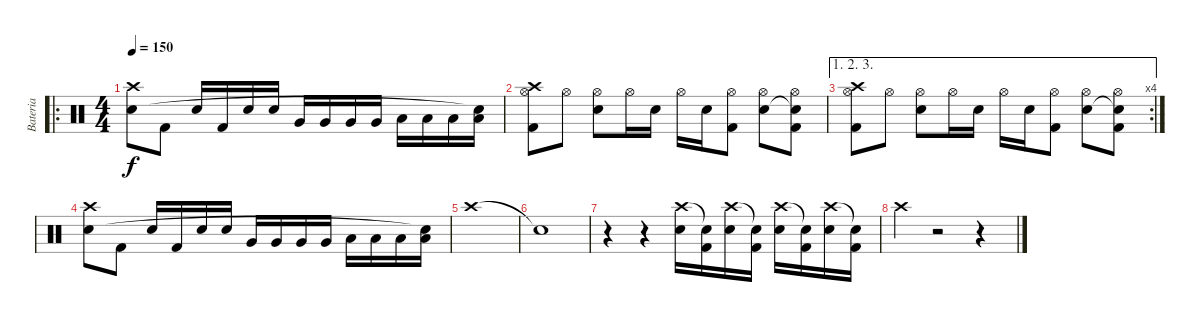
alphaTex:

\track ("Bateria" "Bateria") {instrument percussion}
\staff {score}
\articulation defaults
\ro
\ts (4 4)
\tempo 150
\clef neutral
\ks c
("Crash high (hit)" "Snare (hit) 2").8{dy f} "Kick (hit) 2".8 "Snare (hit) 2".16 "Kick (hit) 2".16 "Snare (hit) 2".16 "Snare (hit) 2".16 "Very Low Tom (hit)".16 "Very Low Tom (hit)".16 "Very Low Tom (hit)".16 "Very Low Tom (hit)".16 "Low Floor Tom (hit)".16 "Low Floor Tom (hit)".16 "Low Floor Tom (hit)".16 ("Low Floor Tom (hit)" "Snare (hit)"{t}).16 |
("Hi-Hat (open)" "Crash high (hit)" "Kick (hit) 2").8 "Hi-Hat (open)".8 ("Hi-Hat (open)" "Snare (hit) 2").8 "Hi-Hat (open)".16 "Snare (hit) 2".16 "Hi-Hat (open)".16 "Snare (hit) 2".16 ("Hi-Hat (open)" "Kick (hit) 2").8 ("Hi-Hat (open)" "Snare (hit) 2").8 ("Hi-Hat (open)" "Snare (hit)"{t} "Kick (hit) 2").8 |
\ae (1 2 3)
\rc 4
("Hi-Hat (open)" "Crash high (hit)" "Kick (hit) 2").8 "Hi-Hat (open)".8 ("Hi-Hat (open)" "Snare (hit) 2").8 "Hi-Hat (open)".16 "Snare (hit) 2".16 "Hi-Hat (open)".16 "Snare (hit) 2".16 ("Hi-Hat (open)" "Kick (hit) 2").8 ("Hi-Hat (open)" "Snare (hit) 2").8 ("Hi-Hat (open)" "Snare (hit)"{t} "Kick (hit) 2").8 |
("Crash high (hit)" "Snare (hit) 2").8 "Kick (hit) 2".8 "Snare (hit) 2".16 "Kick (hit) 2".16 "Snare (hit) 2".16 "Snare (hit) 2".16 "Very Low Tom (hit)".16 "Very Low Tom (hit)".16 "Very Low Tom (hit)".16 "Very Low Tom (hit)".16 "Low Floor Tom (hit)".16 "Low Floor Tom (hit)".16 "Low Floor Tom (hit)".16 ("Low Floor Tom (hit)" "Snare (hit)"{t}).16 |
"Crash high (hit)".1 |
"Snare (hit)"{t}.1 |
r.4 r.4 ("Crash high (hit)" "Snare (hit) 2").16 ("Snare (hit)"{t} "Kick (hit) 2").16 ("Crash high (hit)" "Snare (hit) 2").16 ("Snare (hit)"{t} "Kick (hit) 2").16 ("Crash high (hit)" "Snare (hit) 2").16 ("Snare (hit)"{t} "Kick (hit) 2").16 ("Crash high (hit)" "Snare (hit) 2").16 ("Snare (hit)"{t} "Kick (hit) 2").16 |
"Crash high (hit)".4 r.2 r.4
